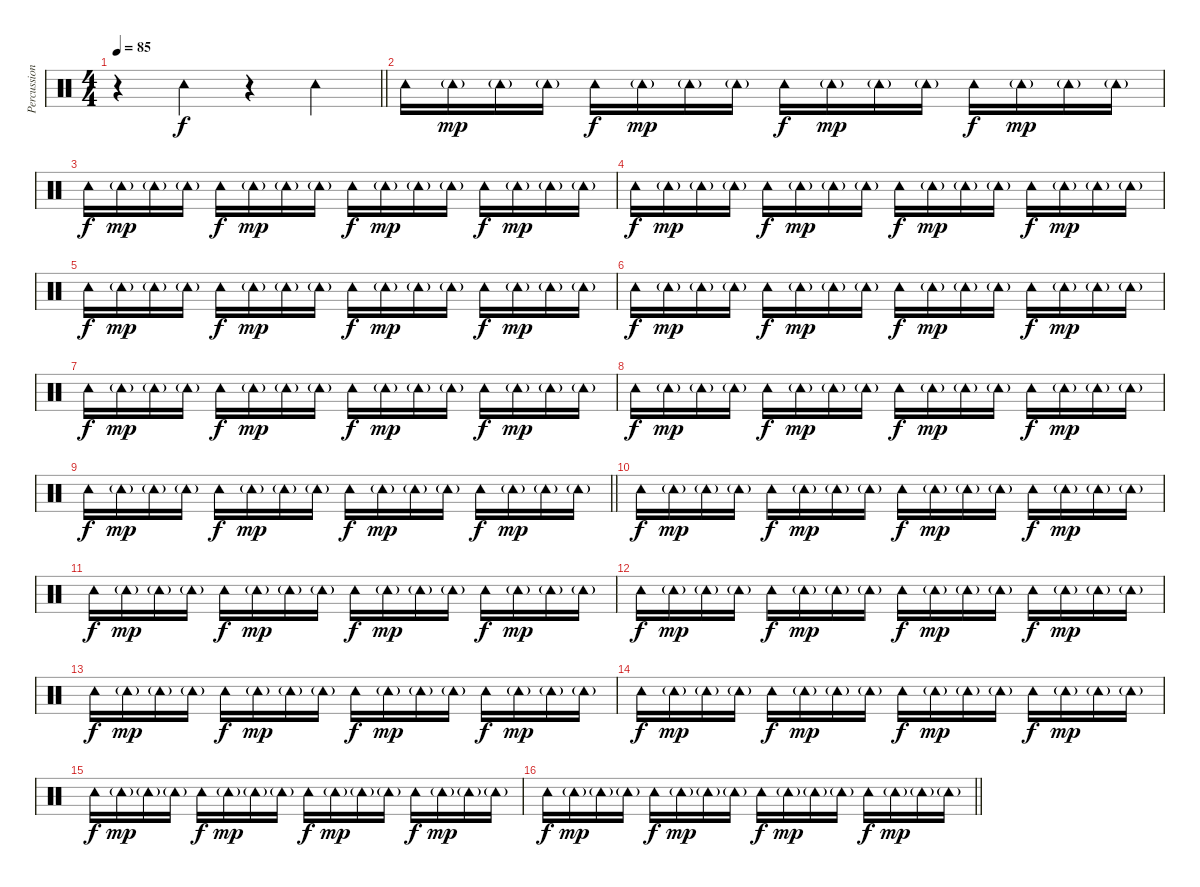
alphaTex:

\track ("Percussions" "Percussion") {instrument percussion}
\staff {score}
\articulation defaults
\ts (4 4)
\tempo 85
\clef neutral
\barLineRight lightlight
\ks c
r.4{dy f} "Tambourine (hit)".4 r.4 "Tambourine (hit)".4 |
"Tambourine (hit)".16 "Tambourine (hit)"{g}.16{dy mp} "Tambourine (hit)"{g}.16 "Tambourine (hit)"{g}.16 "Tambourine (hit)".16{dy f} "Tambourine (hit)"{g}.16{dy mp} "Tambourine (hit)"{g}.16 "Tambourine (hit)"{g}.16 "Tambourine (hit)".16{dy f} "Tambourine (hit)"{g}.16{dy mp} "Tambourine (hit)"{g}.16 "Tambourine (hit)"{g}.16 "Tambourine (hit)".16{dy f} "Tambourine (hit)"{g}.16{dy mp} "Tambourine (hit)"{g}.16 "Tambourine (hit)"{g}.16 |
"Tambourine (hit)".16{dy f} "Tambourine (hit)"{g}.16{dy mp} "Tambourine (hit)"{g}.16 "Tambourine (hit)"{g}.16 "Tambourine (hit)".16{dy f} "Tambourine (hit)"{g}.16{dy mp} "Tambourine (hit)"{g}.16 "Tambourine (hit)"{g}.16 "Tambourine (hit)".16{dy f} "Tambourine (hit)"{g}.16{dy mp} "Tambourine (hit)"{g}.16 "Tambourine (hit)"{g}.16 "Tambourine (hit)".16{dy f} "Tambourine (hit)"{g}.16{dy mp} "Tambourine (hit)"{g}.16 "Tambourine (hit)"{g}.16 |
"Tambourine (hit)".16{dy f} "Tambourine (hit)"{g}.16{dy mp} "Tambourine (hit)"{g}.16 "Tambourine (hit)"{g}.16 "Tambourine (hit)".16{dy f} "Tambourine (hit)"{g}.16{dy mp} "Tambourine (hit)"{g}.16 "Tambourine (hit)"{g}.16 "Tambourine (hit)".16{dy f} "Tambourine (hit)"{g}.16{dy mp} "Tambourine (hit)"{g}.16 "Tambourine (hit)"{g}.16 "Tambourine (hit)".16{dy f} "Tambourine (hit)"{g}.16{dy mp} "Tambourine (hit)"{g}.16 "Tambourine (hit)"{g}.16 |
"Tambourine (hit)".16{dy f} "Tambourine (hit)"{g}.16{dy mp} "Tambourine (hit)"{g}.16 "Tambourine (hit)"{g}.16 "Tambourine (hit)".16{dy f} "Tambourine (hit)"{g}.16{dy mp} "Tambourine (hit)"{g}.16 "Tambourine (hit)"{g}.16 "Tambourine (hit)".16{dy f} "Tambourine (hit)"{g}.16{dy mp} "Tambourine (hit)"{g}.16 "Tambourine (hit)"{g}.16 "Tambourine (hit)".16{dy f} "Tambourine (hit)"{g}.16{dy mp} "Tambourine (hit)"{g}.16 "Tambourine (hit)"{g}.16 |
"Tambourine (hit)".16{dy f} "Tambourine (hit)"{g}.16{dy mp} "Tambourine (hit)"{g}.16 "Tambourine (hit)"{g}.16 "Tambourine (hit)".16{dy f} "Tambourine (hit)"{g}.16{dy mp} "Tambourine (hit)"{g}.16 "Tambourine (hit)"{g}.16 "Tambourine (hit)".16{dy f} "Tambourine (hit)"{g}.16{dy mp} "Tambourine (hit)"{g}.16 "Tambourine (hit)"{g}.16 "Tambourine (hit)".16{dy f} "Tambourine (hit)"{g}.16{dy mp} "Tambourine (hit)"{g}.16 "Tambourine (hit)"{g}.16 |
"Tambourine (hit)".16{dy f} "Tambourine (hit)"{g}.16{dy mp} "Tambourine (hit)"{g}.16 "Tambourine (hit)"{g}.16 "Tambourine (hit)".16{dy f} "Tambourine (hit)"{g}.16{dy mp} "Tambourine (hit)"{g}.16 "Tambourine (hit)"{g}.16 "Tambourine (hit)".16{dy f} "Tambourine (hit)"{g}.16{dy mp} "Tambourine (hit)"{g}.16 "Tambourine (hit)"{g}.16 "Tambourine (hit)".16{dy f} "Tambourine (hit)"{g}.16{dy mp} "Tambourine (hit)"{g}.16 "Tambourine (hit)"{g}.16 |
"Tambourine (hit)".16{dy f} "Tambourine (hit)"{g}.16{dy mp} "Tambourine (hit)"{g}.16 "Tambourine (hit)"{g}.16 "Tambourine (hit)".16{dy f} "Tambourine (hit)"{g}.16{dy mp} "Tambourine (hit)"{g}.16 "Tambourine (hit)"{g}.16 "Tambourine (hit)".16{dy f} "Tambourine (hit)"{g}.16{dy mp} "Tambourine (hit)"{g}.16 "Tambourine (hit)"{g}.16 "Tambourine (hit)".16{dy f} "Tambourine (hit)"{g}.16{dy mp} "Tambourine (hit)"{g}.16 "Tambourine (hit)"{g}.16 |
\barLineRight lightlight "Tambourine (hit)".16{dy f} "Tambourine (hit)"{g}.16{dy mp} "Tambourine (hit)"{g}.16 "Tambourine (hit)"{g}.16 "Tambourine (hit)".16{dy f} "Tambourine (hit)"{g}.16{dy mp} "Tambourine (hit)"{g}.16 "Tambourine (hit)"{g}.16 "Tambourine (hit)".16{dy f} "Tambourine (hit)"{g}.16{dy mp} "Tambourine (hit)"{g}.16 "Tambourine (hit)"{g}.16 "Tambourine (hit)".16{dy f} "Tambourine (hit)"{g}.16{dy mp} "Tambourine (hit)"{g}.16 "Tambourine (hit)"{g}.16
|
"Tambourine (hit)".16{dy f} "Tambourine (hit)"{g}.16{dy mp} "Tambourine (hit)"{g}.16 "Tambourine (hit)"{g}.16 "Tambourine (hit)".16{dy f} "Tambourine (hit)"{g}.16{dy mp} "Tambourine (hit)"{g}.16 "Tambourine (hit)"{g}.16 "Tambourine (hit)".16{dy f} "Tambourine (hit)"{g}.16{dy mp} "Tambourine (hit)"{g}.16 "Tambourine (hit)"{g}.16 "Tambourine (hit)".16{dy f} "Tambourine (hit)"{g}.16{dy mp} "Tambourine (hit)"{g}.16 "Tambourine (hit)"{g}.16 |
"Tambourine (hit)".16{dy f} "Tambourine (hit)"{g}.16{dy mp} "Tambourine (hit)"{g}.16 "Tambourine (hit)"{g}.16 "Tambourine (hit)".16{dy f} "Tambourine (hit)"{g}.16{dy mp} "Tambourine (hit)"{g}.16 "Tambourine (hit)"{g}.16 "Tambourine (hit)".16{dy f} "Tambourine (hit)"{g}.16{dy mp} "Tambourine (hit)"{g}.16 "Tambourine (hit)"{g}.16 "Tambourine (hit)".16{dy f} "Tambourine (hit)"{g}.16{dy mp} "Tambourine (hit)"{g}.16 "Tambourine (hit)"{g}.16 |
"Tambourine (hit)".16{dy f} "Tambourine (hit)"{g}.16{dy mp} "Tambourine (hit)"{g}.16 "Tambourine (hit)"{g}.16 "Tambourine (hit)".16{dy f} "Tambourine (hit)"{g}.16{dy mp} "Tambourine (hit)"{g}.16 "Tambourine (hit)"{g}.16 "Tambourine (hit)".16{dy f} "Tambourine (hit)"{g}.16{dy mp} "Tambourine (hit)"{g}.16 "Tambourine (hit)"{g}.16 "Tambourine (hit)".16{dy f} "Tambourine (hit)"{g}.16{dy mp} "Tambourine (hit)"{g}.16 "Tambourine (hit)"{g}.16 |
"Tambourine (hit)".16{dy f} "Tambourine (hit)"{g}.16{dy mp} "Tambourine (hit)"{g}.16 "Tambourine (hit)"{g}.16 "Tambourine (hit)".16{dy f} "Tambourine (hit)"{g}.16{dy mp} "Tambourine (hit)"{g}.16 "Tambourine (hit)"{g}.16 "Tambourine (hit)".16{dy f} "Tambourine (hit)"{g}.16{dy mp} "Tambourine (hit)"{g}.16 "Tambourine (hit)"{g}.16 "Tambourine (hit)".16{dy f} "Tambourine (hit)"{g}.16{dy mp} "Tambourine (hit)"{g}.16 "Tambourine (hit)"{g}.16 |
"Tambourine (hit)".16{dy f} "Tambourine (hit)"{g}.16{dy mp} "Tambourine (hit)"{g}.16 "Tambourine (hit)"{g}.16 "Tambourine (hit)".16{dy f} "Tambourine (hit)"{g}.16{dy mp} "Tambourine (hit)"{g}.16 "Tambourine (hit)"{g}.16 "Tambourine (hit)".16{dy f} "Tambourine (hit)"{g}.16{dy mp} "Tambourine (hit)"{g}.16 "Tambourine (hit)"{g}.16 "Tambourine (hit)".16{dy f} "Tambourine (hit)"{g}.16{dy mp} "Tambourine (hit)"{g}.16 "Tambourine (hit)"{g}.16 |
"Tambourine (hit)".16{dy f} "Tambourine (hit)"{g}.16{dy mp} "Tambourine (hit)"{g}.16 "Tambourine (hit)"{g}.16 "Tambourine (hit)".16{dy f} "Tambourine (hit)"{g}.16{dy mp} "Tambourine (hit)"{g}.16 "Tambourine (hit)"{g}.16 "Tambourine (hit)".16{dy f} "Tambourine (hit)"{g}.16{dy mp} "Tambourine (hit)"{g}.16 "Tambourine (hit)"{g}.16 "Tambourine (hit)".16{dy f} "Tambourine (hit)"{g}.16{dy mp} "Tambourine (hit)"{g}.16 "Tambourine (hit)"{g}.16 |
\barLineRight lightlight "Tambourine (hit)".16{dy f} "Tambourine (hit)"{g}.16{dy mp} "Tambourine (hit)"{g}.16 "Tambourine (hit)"{g}.16 "Tambourine (hit)".16{dy f} "Tambourine (hit)"{g}.16{dy mp} "Tambourine (hit)"{g}.16 "Tambourine (hit)"{g}.16 "Tambourine (hit)".16{dy f} "Tambourine (hit)"{g}.16{dy mp} "Tambourine (hit)"{g}.16 "Tambourine (hit)"{g}.16 "Tambourine (hit)".16{dy f} "Tambourine (hit)"{g}.16{dy mp} "Tambourine (hit)"{g}.16 "Tambourine (hit)"{g}.16
